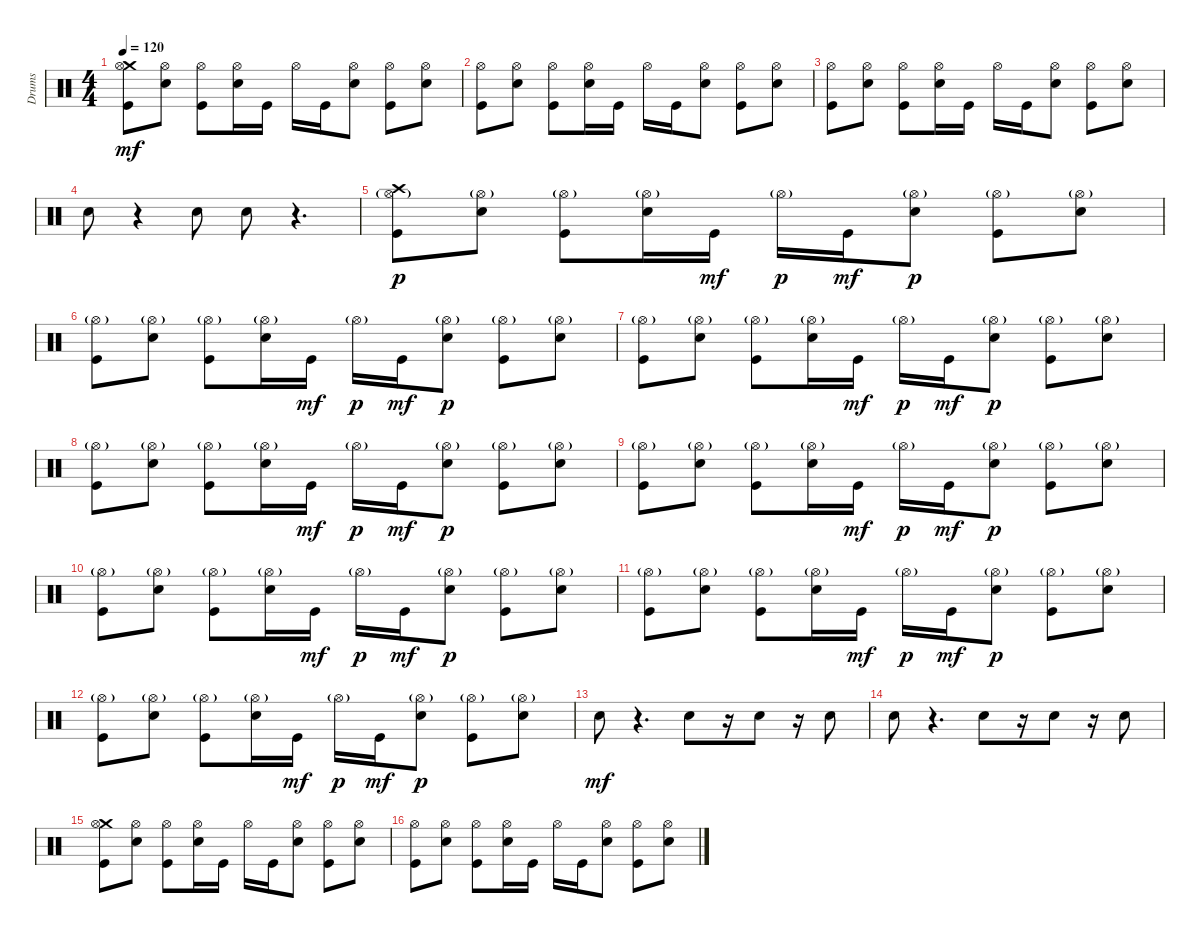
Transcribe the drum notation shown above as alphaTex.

\track ("Drums" "Drums") {instrument percussion}
\staff {score}
\articulation defaults
\ts (4 4)
\tempo 120
\clef neutral
\ks c
("Kick (hit)" "Crash medium (hit)" "Hi-Hat (open)").8{dy mf} ("Electric Snare (hit)" "Hi-Hat (open)").8 ("Kick (hit)" "Hi-Hat (open)").8 ("Electric Snare (hit)" "Hi-Hat (open)").16 "Kick (hit)".16 "Hi-Hat (open)".16 "Kick (hit)".16 ("Electric Snare (hit)" "Hi-Hat (open)").8 ("Kick (hit)" "Hi-Hat (open)").8 ("Electric Snare (hit)" "Hi-Hat (open)").8 |
("Kick (hit)" "Hi-Hat (open)").8 ("Electric Snare (hit)" "Hi-Hat (open)").8 ("Kick (hit)" "Hi-Hat (open)").8 ("Electric Snare (hit)" "Hi-Hat (open)").16 "Kick (hit)".16 "Hi-Hat (open)".16 "Kick (hit)".16 ("Electric Snare (hit)" "Hi-Hat (open)").8 ("Kick (hit)" "Hi-Hat (open)").8 ("Electric Snare (hit)" "Hi-Hat (open)").8 |
("Kick (hit)" "Hi-Hat (open)").8 ("Electric Snare (hit)" "Hi-Hat (open)").8 ("Kick (hit)" "Hi-Hat (open)").8 ("Electric Snare (hit)" "Hi-Hat (open)").16 "Kick (hit)".16 "Hi-Hat (open)".16 "Kick (hit)".16 ("Electric Snare (hit)" "Hi-Hat (open)").8 ("Kick (hit)" "Hi-Hat (open)").8 ("Electric Snare (hit)" "Hi-Hat (open)").8 |
"Electric Snare (hit)".8 r.4 "Electric Snare (hit)".8 "Electric Snare (hit)".8 r.4{d} |
("Kick (hit)" "Crash high (hit)" "Hi-Hat (open)"{g}).8{dy p} ("Electric Snare (hit)" "Hi-Hat (open)"{g}).8 ("Kick (hit)" "Hi-Hat (open)"{g}).8 ("Electric Snare (hit)" "Hi-Hat (open)"{g}).16 "Kick (hit)".16{dy mf} "Hi-Hat (open)"{g}.16{dy p} "Kick (hit)".16{dy mf} ("Electric Snare (hit)" "Hi-Hat (open)"{g}).8{dy p} ("Kick (hit)" "Hi-Hat (open)"{g}).8 ("Electric Snare (hit)" "Hi-Hat (open)"{g}).8 |
("Kick (hit)" "Hi-Hat (open)"{g}).8 ("Electric Snare (hit)" "Hi-Hat (open)"{g}).8 ("Kick (hit)" "Hi-Hat (open)"{g}).8 ("Electric Snare (hit)" "Hi-Hat (open)"{g}).16 "Kick (hit)".16{dy mf} "Hi-Hat (open)"{g}.16{dy p} "Kick (hit)".16{dy mf} ("Electric Snare (hit)" "Hi-Hat (open)"{g}).8{dy p} ("Kick (hit)" "Hi-Hat (open)"{g}).8 ("Electric Snare (hit)" "Hi-Hat (open)"{g}).8 |
("Kick (hit)" "Hi-Hat (open)"{g}).8 ("Electric Snare (hit)" "Hi-Hat (open)"{g}).8 ("Kick (hit)" "Hi-Hat (open)"{g}).8 ("Electric Snare (hit)" "Hi-Hat (open)"{g}).16 "Kick (hit)".16{dy mf} "Hi-Hat (open)"{g}.16{dy p} "Kick (hit)".16{dy mf} ("Electric Snare (hit)" "Hi-Hat (open)"{g}).8{dy p} ("Kick (hit)" "Hi-Hat (open)"{g}).8 ("Electric Snare (hit)" "Hi-Hat (open)"{g}).8 |
("Kick (hit)" "Hi-Hat (open)"{g}).8 ("Electric Snare (hit)" "Hi-Hat (open)"{g}).8 ("Kick (hit)" "Hi-Hat (open)"{g}).8 ("Electric Snare (hit)" "Hi-Hat (open)"{g}).16 "Kick (hit)".16{dy mf} "Hi-Hat (open)"{g}.16{dy p} "Kick (hit)".16{dy mf} ("Electric Snare (hit)" "Hi-Hat (open)"{g}).8{dy p} ("Kick (hit)" "Hi-Hat (open)"{g}).8 ("Electric Snare (hit)" "Hi-Hat (open)"{g}).8 |
("Kick (hit)" "Hi-Hat (open)"{g}).8 ("Electric Snare (hit)" "Hi-Hat (open)"{g}).8 ("Kick (hit)" "Hi-Hat (open)"{g}).8 ("Electric Snare (hit)" "Hi-Hat (open)"{g}).16 "Kick (hit)".16{dy mf} "Hi-Hat (open)"{g}.16{dy p} "Kick (hit)".16{dy mf} ("Electric Snare (hit)" "Hi-Hat (open)"{g}).8{dy p} ("Kick (hit)" "Hi-Hat (open)"{g}).8 ("Electric Snare (hit)" "Hi-Hat (open)"{g}).8 |
("Kick (hit)" "Hi-Hat (open)"{g}).8 ("Electric Snare (hit)" "Hi-Hat (open)"{g}).8 ("Kick (hit)" "Hi-Hat (open)"{g}).8 ("Electric Snare (hit)" "Hi-Hat (open)"{g}).16 "Kick (hit)".16{dy mf} "Hi-Hat (open)"{g}.16{dy p} "Kick (hit)".16{dy mf} ("Electric Snare (hit)" "Hi-Hat (open)"{g}).8{dy p} ("Kick (hit)" "Hi-Hat (open)"{g}).8 ("Electric Snare (hit)" "Hi-Hat (open)"{g}).8 |
("Kick (hit)" "Hi-Hat (open)"{g}).8 ("Electric Snare (hit)" "Hi-Hat (open)"{g}).8 ("Kick (hit)" "Hi-Hat (open)"{g}).8 ("Electric Snare (hit)" "Hi-Hat (open)"{g}).16 "Kick (hit)".16{dy mf} "Hi-Hat (open)"{g}.16{dy p} "Kick (hit)".16{dy mf} ("Electric Snare (hit)" "Hi-Hat (open)"{g}).8{dy p} ("Kick (hit)" "Hi-Hat (open)"{g}).8 ("Electric Snare (hit)" "Hi-Hat (open)"{g}).8 |
("Kick (hit)" "Hi-Hat (open)"{g}).8 ("Electric Snare (hit)" "Hi-Hat (open)"{g}).8 ("Kick (hit)" "Hi-Hat (open)"{g}).8 ("Electric Snare (hit)" "Hi-Hat (open)"{g}).16 "Kick (hit)".16{dy mf} "Hi-Hat (open)"{g}.16{dy p} "Kick (hit)".16{dy mf} ("Electric Snare (hit)" "Hi-Hat (open)"{g}).8{dy p} ("Kick (hit)" "Hi-Hat (open)"{g}).8 ("Electric Snare (hit)" "Hi-Hat (open)"{g}).8 |
"Electric Snare (hit)".8{dy mf} r.4{d} "Electric Snare (hit)".8 r.16 "Electric Snare (hit)".8 r.16 "Electric Snare (hit)".8 |
"Electric Snare (hit)".8 r.4{d} "Electric Snare (hit)".8 r.16 "Electric Snare (hit)".8 r.16 "Electric Snare (hit)".8 |
("Kick (hit)" "Crash medium (hit)" "Hi-Hat (open)").8 ("Electric Snare (hit)" "Hi-Hat (open)").8 ("Kick (hit)" "Hi-Hat (open)").8 ("Electric Snare (hit)" "Hi-Hat (open)").16 "Kick (hit)".16 "Hi-Hat (open)".16 "Kick (hit)".16 ("Electric Snare (hit)" "Hi-Hat (open)").8 ("Kick (hit)" "Hi-Hat (open)").8 ("Electric Snare (hit)" "Hi-Hat (open)").8 |
("Kick (hit)" "Hi-Hat (open)").8 ("Electric Snare (hit)" "Hi-Hat (open)").8 ("Kick (hit)" "Hi-Hat (open)").8 ("Electric Snare (hit)" "Hi-Hat (open)").16 "Kick (hit)".16 "Hi-Hat (open)".16 "Kick (hit)".16 ("Electric Snare (hit)" "Hi-Hat (open)").8 ("Kick (hit)" "Hi-Hat (open)").8 ("Electric Snare (hit)" "Hi-Hat (open)").8
